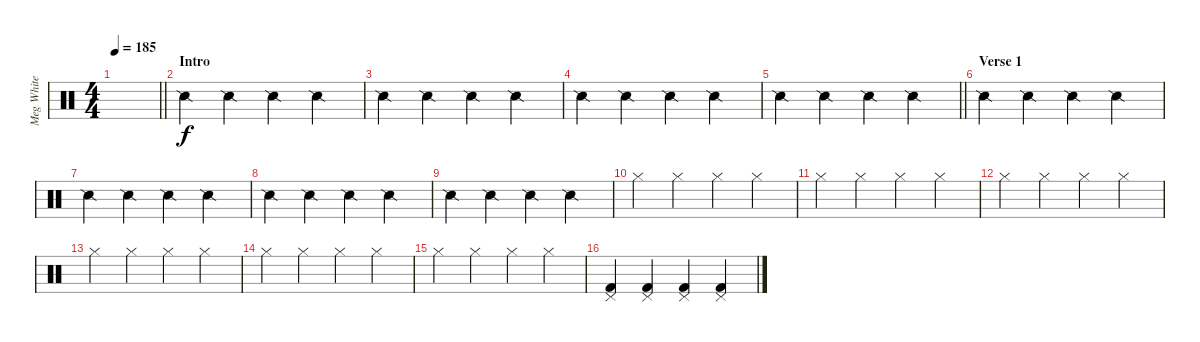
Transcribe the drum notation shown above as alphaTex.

\track ("Meg White (Drums)" "Meg White ") {instrument percussion}
\staff {score}
\articulation defaults
\ts (4 4)
\tempo 185
\clef neutral
\barLineRight lightlight
\ks c
|
\section ("" "Intro")
"Snare (side stick) 2".4 "Snare (side stick) 2".4 "Snare (side stick) 2".4 "Snare (side stick) 2".4 |
"Snare (side stick) 2".4 "Snare (side stick) 2".4 "Snare (side stick) 2".4 "Snare (side stick) 2".4 |
"Snare (side stick) 2".4 "Snare (side stick) 2".4 "Snare (side stick) 2".4 "Snare (side stick) 2".4 |
\barLineRight lightlight "Snare (side stick) 2".4 "Snare (side stick) 2".4 "Snare (side stick) 2".4 "Snare (side stick) 2".4
|
\section ("" "Verse 1")
"Snare (side stick) 2".4 "Snare (side stick) 2".4 "Snare (side stick) 2".4 "Snare (side stick) 2".4 |
"Snare (side stick) 2".4 "Snare (side stick) 2".4 "Snare (side stick) 2".4 "Snare (side stick) 2".4 |
"Snare (side stick) 2".4 "Snare (side stick) 2".4 "Snare (side stick) 2".4 "Snare (side stick) 2".4 |
"Snare (side stick) 2".4 "Snare (side stick) 2".4 "Snare (side stick) 2".4 "Snare (side stick) 2".4 |
"Hi-Hat (closed)".4 "Hi-Hat (closed)".4 "Hi-Hat (closed)".4 "Hi-Hat (closed)".4 |
"Hi-Hat (closed)".4 "Hi-Hat (closed)".4 "Hi-Hat (closed)".4 "Hi-Hat (closed)".4 |
"Hi-Hat (closed)".4 "Hi-Hat (closed)".4 "Hi-Hat (closed)".4 "Hi-Hat (closed)".4 |
"Hi-Hat (closed)".4 "Hi-Hat (closed)".4 "Hi-Hat (closed)".4 "Hi-Hat (closed)".4 |
"Hi-Hat (closed)".4 "Hi-Hat (closed)".4 "Hi-Hat (closed)".4 "Hi-Hat (closed)".4 |
"Hi-Hat (closed)".4 "Hi-Hat (closed)".4 "Hi-Hat (closed)".4 "Hi-Hat (closed)".4 |
("Kick (hit) 2" "Pedal Hi-Hat (hit)").4 ("Kick (hit) 2" "Pedal Hi-Hat (hit)").4 ("Kick (hit) 2" "Pedal Hi-Hat (hit)").4 ("Kick (hit) 2" "Pedal Hi-Hat (hit)").4
